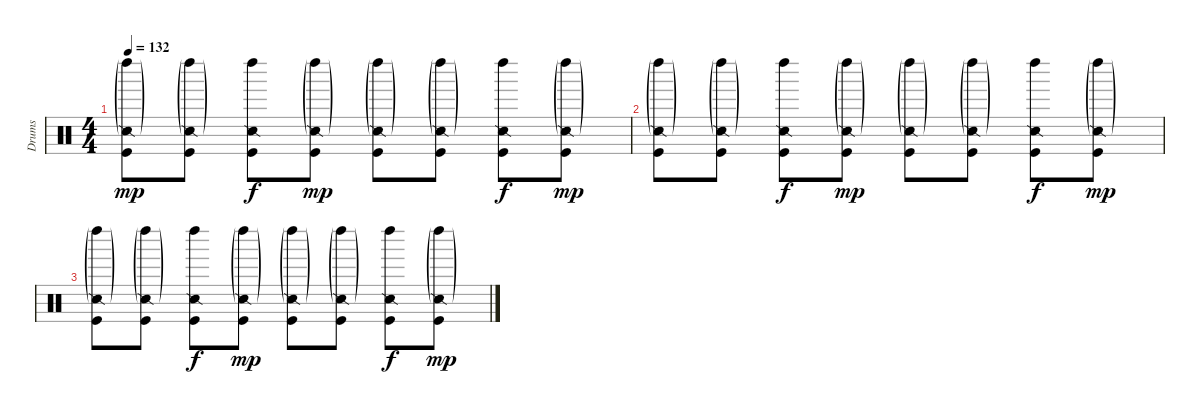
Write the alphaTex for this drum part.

\track ("Drums" "Drums") {instrument percussion}
\staff {score}
\articulation defaults
\ts (4 4)
\tempo 132
\clef neutral
\ks c
("Left Maraca (hit)"{g} "Snare (side stick) 2"{g} "Kick (hit)").8{dy mp volume 0} ("Left Maraca (hit)"{g} "Snare (side stick) 2"{g} "Kick (hit)").8 ("Left Maraca (hit)" "Snare (side stick) 2" "Kick (hit)").8{dy f} ("Left Maraca (hit)"{g} "Snare (side stick) 2"{g} "Kick (hit)").8{dy mp} ("Left Maraca (hit)"{g} "Snare (side stick) 2"{g} "Kick (hit)").8 ("Left Maraca (hit)"{g} "Snare (side stick) 2"{g} "Kick (hit)").8 ("Left Maraca (hit)" "Snare (side stick) 2" "Kick (hit)").8{dy f} ("Left Maraca (hit)"{g} "Snare (side stick) 2"{g} "Kick (hit)").8{dy mp} |
("Left Maraca (hit)"{g} "Snare (side stick) 2"{g} "Kick (hit)").8 ("Left Maraca (hit)"{g} "Snare (side stick) 2"{g} "Kick (hit)").8 ("Left Maraca (hit)" "Snare (side stick) 2" "Kick (hit)").8{dy f} ("Left Maraca (hit)"{g} "Snare (side stick) 2"{g} "Kick (hit)").8{dy mp} ("Left Maraca (hit)"{g} "Snare (side stick) 2"{g} "Kick (hit)").8 ("Left Maraca (hit)"{g} "Snare (side stick) 2"{g} "Kick (hit)").8 ("Left Maraca (hit)" "Snare (side stick) 2" "Kick (hit)").8{dy f} ("Left Maraca (hit)"{g} "Snare (side stick) 2"{g} "Kick (hit)").8{dy mp} |
("Left Maraca (hit)"{g} "Snare (side stick) 2"{g} "Kick (hit)").8 ("Left Maraca (hit)"{g} "Snare (side stick) 2"{g} "Kick (hit)").8 ("Left Maraca (hit)" "Snare (side stick) 2" "Kick (hit)").8{dy f} ("Left Maraca (hit)"{g} "Snare (side stick) 2"{g} "Kick (hit)").8{dy mp} ("Left Maraca (hit)"{g} "Snare (side stick) 2"{g} "Kick (hit)").8 ("Left Maraca (hit)"{g} "Snare (side stick) 2"{g} "Kick (hit)").8 ("Left Maraca (hit)" "Snare (side stick) 2" "Kick (hit)").8{dy f} ("Left Maraca (hit)"{g} "Snare (side stick) 2"{g} "Kick (hit)").8{dy mp}
